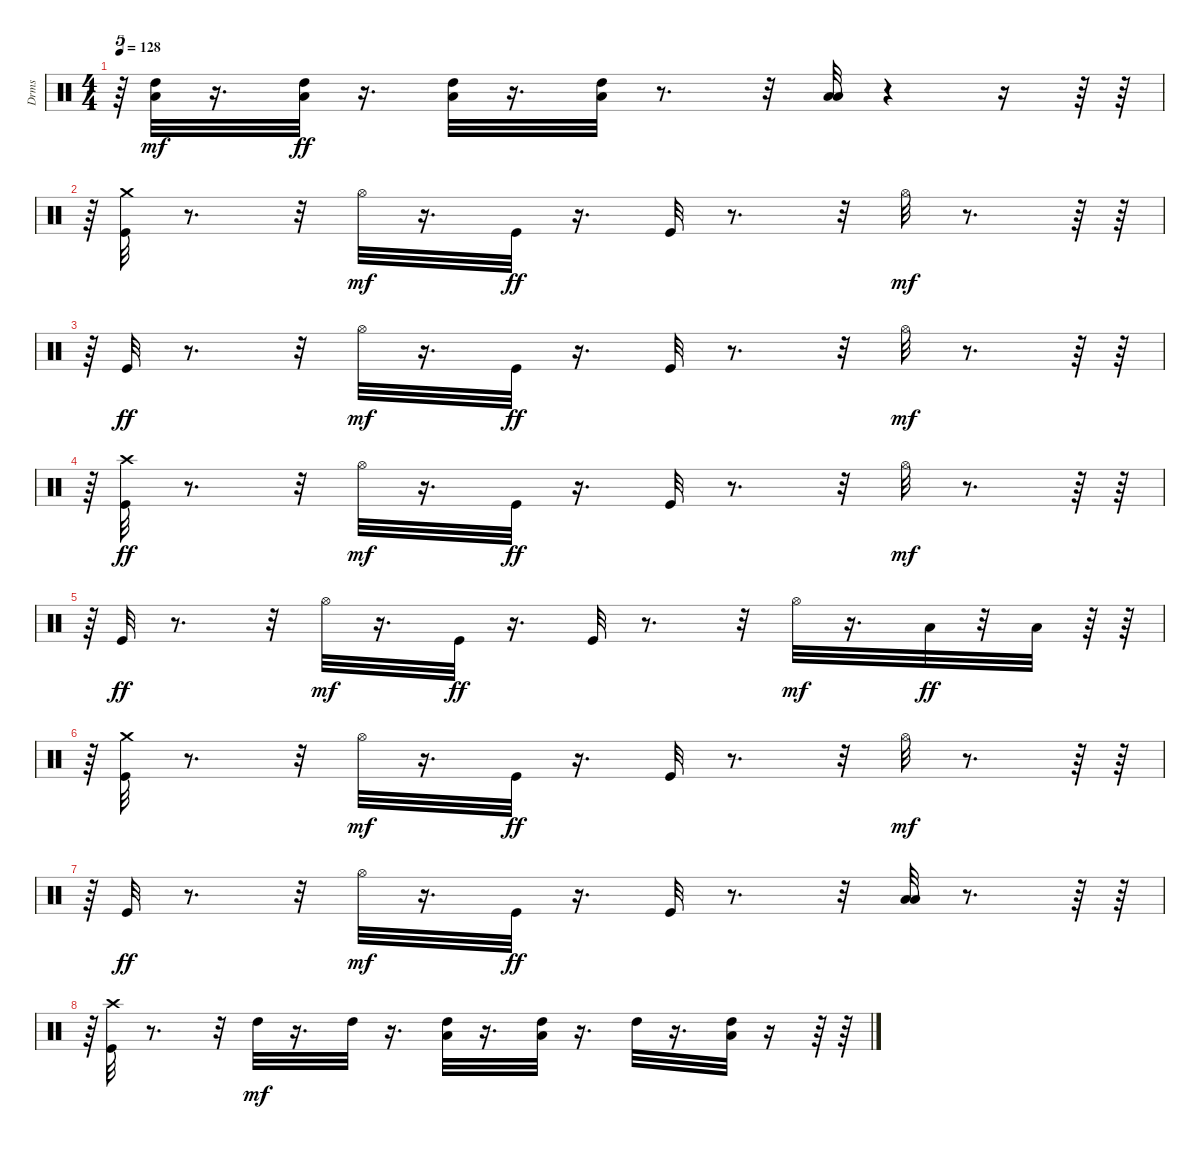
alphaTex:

\track ("Drms" "Drms") {instrument percussion}
\staff {score}
\articulation defaults
\ts (4 4)
\tempo 128
\clef neutral
\ks c
r.64{tu (5 4) dy mf} ("Low Tom (hit)" "High Tom (hit)").32 r.16{d} ("Low Tom (hit)" "High Tom (hit)").32{dy ff} r.16{d} ("Low Tom (hit)" "High Tom (hit)").32 r.16{d} ("High Tom (hit)" "Low Tom (hit)").32 r.8{d} r.32 ("Low Floor Tom (hit)" "Low Tom (hit)").32 r.4 r.16 r.64 r.64 |
r.64{tu (5 4)} ("Kick (hit)" "Crash medium (hit)").32 r.8{d} r.32 "Hi-Hat (open)".32{dy mf} r.16{d} "Kick (hit)".32{dy ff} r.16{d} "Kick (hit)".32 r.8{d} r.32 "Hi-Hat (open)".32{dy mf} r.8{d} r.64 r.64 |
r.64{tu (5 4)} "Kick (hit)".32{dy ff} r.8{d} r.32 "Hi-Hat (open)".32{dy mf} r.16{d} "Kick (hit)".32{dy ff} r.16{d} "Kick (hit)".32 r.8{d} r.32 "Hi-Hat (open)".32{dy mf} r.8{d} r.64 r.64 |
r.64{tu (5 4)} ("Crash high (hit)" "Kick (hit)").32{dy ff} r.8{d} r.32 "Hi-Hat (open)".32{dy mf} r.16{d} "Kick (hit)".32{dy ff} r.16{d} "Kick (hit)".32 r.8{d} r.32 "Hi-Hat (open)".32{dy mf} r.8{d} r.64 r.64 |
r.64{tu (5 4)} "Kick (hit)".32{dy ff} r.8{d} r.32 "Hi-Hat (open)".32{dy mf} r.16{d} "Kick (hit)".32{dy ff} r.16{d} "Kick (hit)".32 r.8{d} r.32 "Hi-Hat (open)".32{dy mf} r.16{d} "Low Tom (hit)".32{dy ff} r.32 "Low Floor Tom (hit)".32 r.64 r.64 |
r.64{tu (5 4)} ("Kick (hit)" "Crash medium (hit)").32 r.8{d} r.32 "Hi-Hat (open)".32{dy mf} r.16{d} "Kick (hit)".32{dy ff} r.16{d} "Kick (hit)".32 r.8{d} r.32 "Hi-Hat (open)".32{dy mf} r.8{d} r.64 r.64 |
r.64{tu (5 4)} "Kick (hit)".32{dy ff} r.8{d} r.32 "Hi-Hat (open)".32{dy mf} r.16{d} "Kick (hit)".32{dy ff} r.16{d} "Kick (hit)".32 r.8{d} r.32 ("Low Floor Tom (hit)" "Low Tom (hit)").32 r.8{d} r.64 r.64 |
r.64{tu (5 4)} ("Crash high (hit)" "Kick (hit)").32 r.8{d} r.32 "High Tom (hit)".32{dy mf} r.16{d} "High Tom (hit)".32 r.16{d} ("Low Tom (hit)" "High Tom (hit)").32 r.16{d} ("Low Tom (hit)" "High Tom (hit)").32 r.16{d} "High Tom (hit)".32 r.16{d} ("High Tom (hit)" "Low Tom (hit)").32 r.16 r.64 r.64
